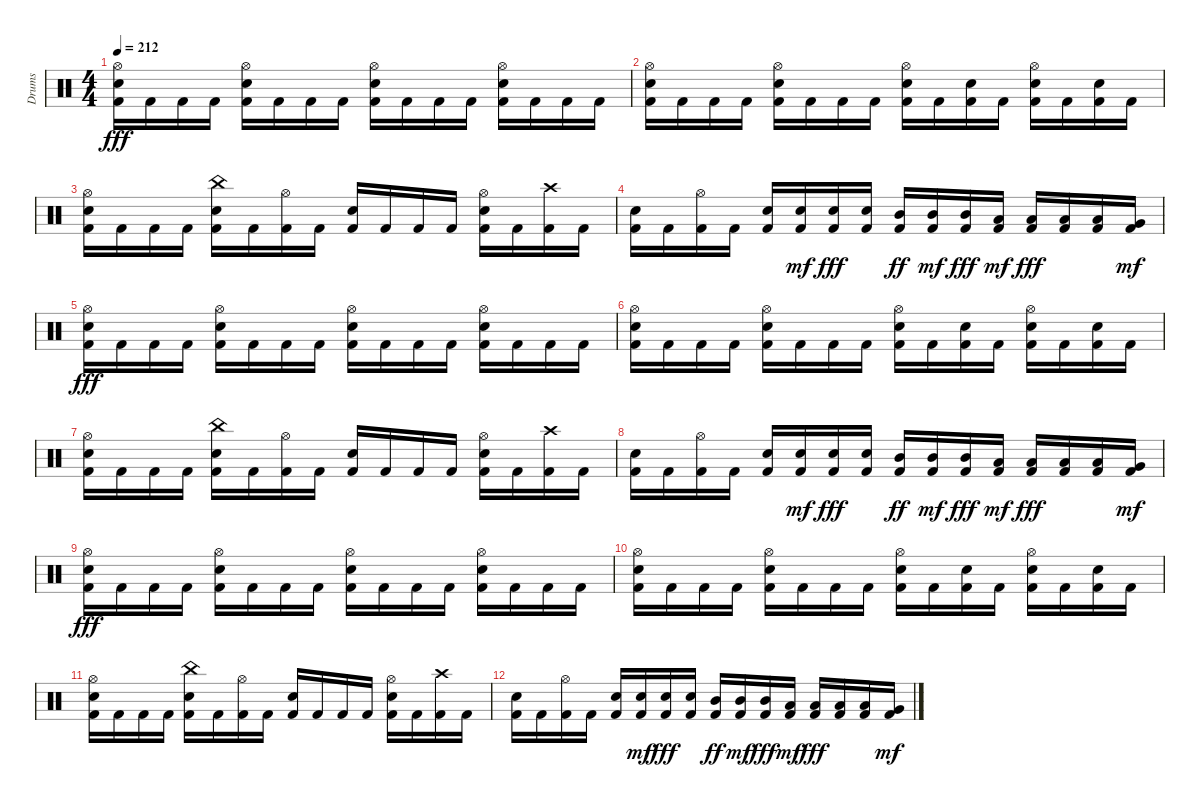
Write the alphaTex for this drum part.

\track ("Drums" "Drums") {instrument percussion}
\staff {score}
\articulation defaults
\ts (4 4)
\tempo 212
\clef neutral
\ks c
("Kick (hit) 2" "Snare (hit) 2" "Hi-Hat (open)").16{dy fff} "Kick (hit) 2".16 "Kick (hit) 2".16 "Kick (hit) 2".16 ("Kick (hit) 2" "Snare (hit) 2" "Hi-Hat (open)").16 "Kick (hit) 2".16 "Kick (hit) 2".16 "Kick (hit) 2".16 ("Kick (hit) 2" "Snare (hit) 2" "Hi-Hat (open)").16 "Kick (hit) 2".16 "Kick (hit) 2".16 "Kick (hit) 2".16 ("Kick (hit) 2" "Snare (hit) 2" "Hi-Hat (open)").16 "Kick (hit) 2".16 "Kick (hit) 2".16 "Kick (hit) 2".16 |
("Kick (hit) 2" "Snare (hit) 2" "Hi-Hat (open)").16 "Kick (hit) 2".16 "Kick (hit) 2".16 "Kick (hit) 2".16 ("Kick (hit) 2" "Snare (hit) 2" "Hi-Hat (open)").16 "Kick (hit) 2".16 "Kick (hit) 2".16 "Kick (hit) 2".16 ("Kick (hit) 2" "Snare (hit) 2" "Hi-Hat (open)").16 "Kick (hit) 2".16 ("Kick (hit) 2" "Snare (hit) 2").16 "Kick (hit) 2".16 ("Kick (hit) 2" "Snare (hit) 2" "Hi-Hat (open)").16 "Kick (hit) 2".16 ("Kick (hit) 2" "Snare (hit) 2").16 "Kick (hit) 2".16 |
("Kick (hit) 2" "Snare (hit) 2" "Hi-Hat (open)").16 "Kick (hit) 2".16 "Kick (hit) 2".16 "Kick (hit) 2".16 ("Kick (hit) 2" "Snare (hit) 2" "China (hit)").16 "Kick (hit) 2".16 ("Kick (hit) 2" "Hi-Hat (open)").16 "Kick (hit) 2".16 ("Kick (hit) 2" "Snare (hit) 2").16 "Kick (hit) 2".16 "Kick (hit) 2".16 "Kick (hit) 2".16 ("Kick (hit) 2" "Snare (hit) 2" "Hi-Hat (open)").16 "Kick (hit) 2".16 ("Kick (hit) 2" "Crash high (hit)").16 "Kick (hit) 2".16 |
("Kick (hit) 2" "Snare (hit) 2").16 "Kick (hit) 2".16 ("Kick (hit) 2" "Hi-Hat (open)").16 "Kick (hit) 2".16 ("Kick (hit) 2" "Snare (hit) 2").16 ("Kick (hit) 2" "Snare (hit) 2").16{dy mf} ("Kick (hit) 2" "Snare (hit) 2").16{dy fff} ("Kick (hit) 2" "Snare (hit) 2").16 ("Kick (hit) 2" "Mid Tom (hit)").16{dy ff} ("Kick (hit) 2" "Mid Tom (hit)").16{dy mf} ("Kick (hit) 2" "Mid Tom (hit)").16{dy fff} ("Kick (hit) 2" "Low Tom (hit)").16{dy mf} ("Kick (hit) 2" "Low Tom (hit)").16{dy fff} ("Kick (hit) 2" "Low Tom (hit)").16 ("Kick (hit) 2" "Low Tom (hit)").16 ("Kick (hit) 2" "Very Low Tom (hit)").16{dy mf} |
("Kick (hit) 2" "Snare (hit) 2" "Hi-Hat (open)").16{dy fff} "Kick (hit) 2".16 "Kick (hit) 2".16 "Kick (hit) 2".16 ("Kick (hit) 2" "Snare (hit) 2" "Hi-Hat (open)").16 "Kick (hit) 2".16 "Kick (hit) 2".16 "Kick (hit) 2".16 ("Kick (hit) 2" "Snare (hit) 2" "Hi-Hat (open)").16 "Kick (hit) 2".16 "Kick (hit) 2".16 "Kick (hit) 2".16 ("Kick (hit) 2" "Snare (hit) 2" "Hi-Hat (open)").16 "Kick (hit) 2".16 "Kick (hit) 2".16 "Kick (hit) 2".16 |
("Kick (hit) 2" "Snare (hit) 2" "Hi-Hat (open)").16 "Kick (hit) 2".16 "Kick (hit) 2".16 "Kick (hit) 2".16 ("Kick (hit) 2" "Snare (hit) 2" "Hi-Hat (open)").16 "Kick (hit) 2".16 "Kick (hit) 2".16 "Kick (hit) 2".16 ("Kick (hit) 2" "Snare (hit) 2" "Hi-Hat (open)").16 "Kick (hit) 2".16 ("Kick (hit) 2" "Snare (hit) 2").16 "Kick (hit) 2".16 ("Kick (hit) 2" "Snare (hit) 2" "Hi-Hat (open)").16 "Kick (hit) 2".16 ("Kick (hit) 2" "Snare (hit) 2").16 "Kick (hit) 2".16 |
("Kick (hit) 2" "Snare (hit) 2" "Hi-Hat (open)").16 "Kick (hit) 2".16 "Kick (hit) 2".16 "Kick (hit) 2".16 ("Kick (hit) 2" "Snare (hit) 2" "China (hit)").16 "Kick (hit) 2".16 ("Kick (hit) 2" "Hi-Hat (open)").16 "Kick (hit) 2".16 ("Kick (hit) 2" "Snare (hit) 2").16 "Kick (hit) 2".16 "Kick (hit) 2".16 "Kick (hit) 2".16 ("Kick (hit) 2" "Snare (hit) 2" "Hi-Hat (open)").16 "Kick (hit) 2".16 ("Kick (hit) 2" "Crash high (hit)").16 "Kick (hit) 2".16 |
("Kick (hit) 2" "Snare (hit) 2").16 "Kick (hit) 2".16 ("Kick (hit) 2" "Hi-Hat (open)").16 "Kick (hit) 2".16 ("Kick (hit) 2" "Snare (hit) 2").16 ("Kick (hit) 2" "Snare (hit) 2").16{dy mf} ("Kick (hit) 2" "Snare (hit) 2").16{dy fff} ("Kick (hit) 2" "Snare (hit) 2").16 ("Kick (hit) 2" "Mid Tom (hit)").16{dy ff} ("Kick (hit) 2" "Mid Tom (hit)").16{dy mf} ("Kick (hit) 2" "Mid Tom (hit)").16{dy fff} ("Kick (hit) 2" "Low Tom (hit)").16{dy mf} ("Kick (hit) 2" "Low Tom (hit)").16{dy fff} ("Kick (hit) 2" "Low Tom (hit)").16 ("Kick (hit) 2" "Low Tom (hit)").16 ("Kick (hit) 2" "Very Low Tom (hit)").16{dy mf} |
("Kick (hit) 2" "Snare (hit) 2" "Hi-Hat (open)").16{dy fff} "Kick (hit) 2".16 "Kick (hit) 2".16 "Kick (hit) 2".16 ("Kick (hit) 2" "Snare (hit) 2" "Hi-Hat (open)").16 "Kick (hit) 2".16 "Kick (hit) 2".16 "Kick (hit) 2".16 ("Kick (hit) 2" "Snare (hit) 2" "Hi-Hat (open)").16 "Kick (hit) 2".16 "Kick (hit) 2".16 "Kick (hit) 2".16 ("Kick (hit) 2" "Snare (hit) 2" "Hi-Hat (open)").16 "Kick (hit) 2".16 "Kick (hit) 2".16 "Kick (hit) 2".16 |
("Kick (hit) 2" "Snare (hit) 2" "Hi-Hat (open)").16 "Kick (hit) 2".16 "Kick (hit) 2".16 "Kick (hit) 2".16 ("Kick (hit) 2" "Snare (hit) 2" "Hi-Hat (open)").16 "Kick (hit) 2".16 "Kick (hit) 2".16 "Kick (hit) 2".16 ("Kick (hit) 2" "Snare (hit) 2" "Hi-Hat (open)").16 "Kick (hit) 2".16 ("Kick (hit) 2" "Snare (hit) 2").16 "Kick (hit) 2".16 ("Kick (hit) 2" "Snare (hit) 2" "Hi-Hat (open)").16 "Kick (hit) 2".16 ("Kick (hit) 2" "Snare (hit) 2").16 "Kick (hit) 2".16 |
("Kick (hit) 2" "Snare (hit) 2" "Hi-Hat (open)").16 "Kick (hit) 2".16 "Kick (hit) 2".16 "Kick (hit) 2".16 ("Kick (hit) 2" "Snare (hit) 2" "China (hit)").16 "Kick (hit) 2".16 ("Kick (hit) 2" "Hi-Hat (open)").16 "Kick (hit) 2".16 ("Kick (hit) 2" "Snare (hit) 2").16 "Kick (hit) 2".16 "Kick (hit) 2".16 "Kick (hit) 2".16 ("Kick (hit) 2" "Snare (hit) 2" "Hi-Hat (open)").16 "Kick (hit) 2".16 ("Kick (hit) 2" "Crash high (hit)").16 "Kick (hit) 2".16 |
("Kick (hit) 2" "Snare (hit) 2").16 "Kick (hit) 2".16 ("Kick (hit) 2" "Hi-Hat (open)").16 "Kick (hit) 2".16 ("Kick (hit) 2" "Snare (hit) 2").16 ("Kick (hit) 2" "Snare (hit) 2").16{dy mf} ("Kick (hit) 2" "Snare (hit) 2").16{dy fff} ("Kick (hit) 2" "Snare (hit) 2").16 ("Kick (hit) 2" "Mid Tom (hit)").16{dy ff} ("Kick (hit) 2" "Mid Tom (hit)").16{dy mf} ("Kick (hit) 2" "Mid Tom (hit)").16{dy fff} ("Kick (hit) 2" "Low Tom (hit)").16{dy mf} ("Kick (hit) 2" "Low Tom (hit)").16{dy fff} ("Kick (hit) 2" "Low Tom (hit)").16 ("Kick (hit) 2" "Low Tom (hit)").16 ("Kick (hit) 2" "Very Low Tom (hit)").16{dy mf}
